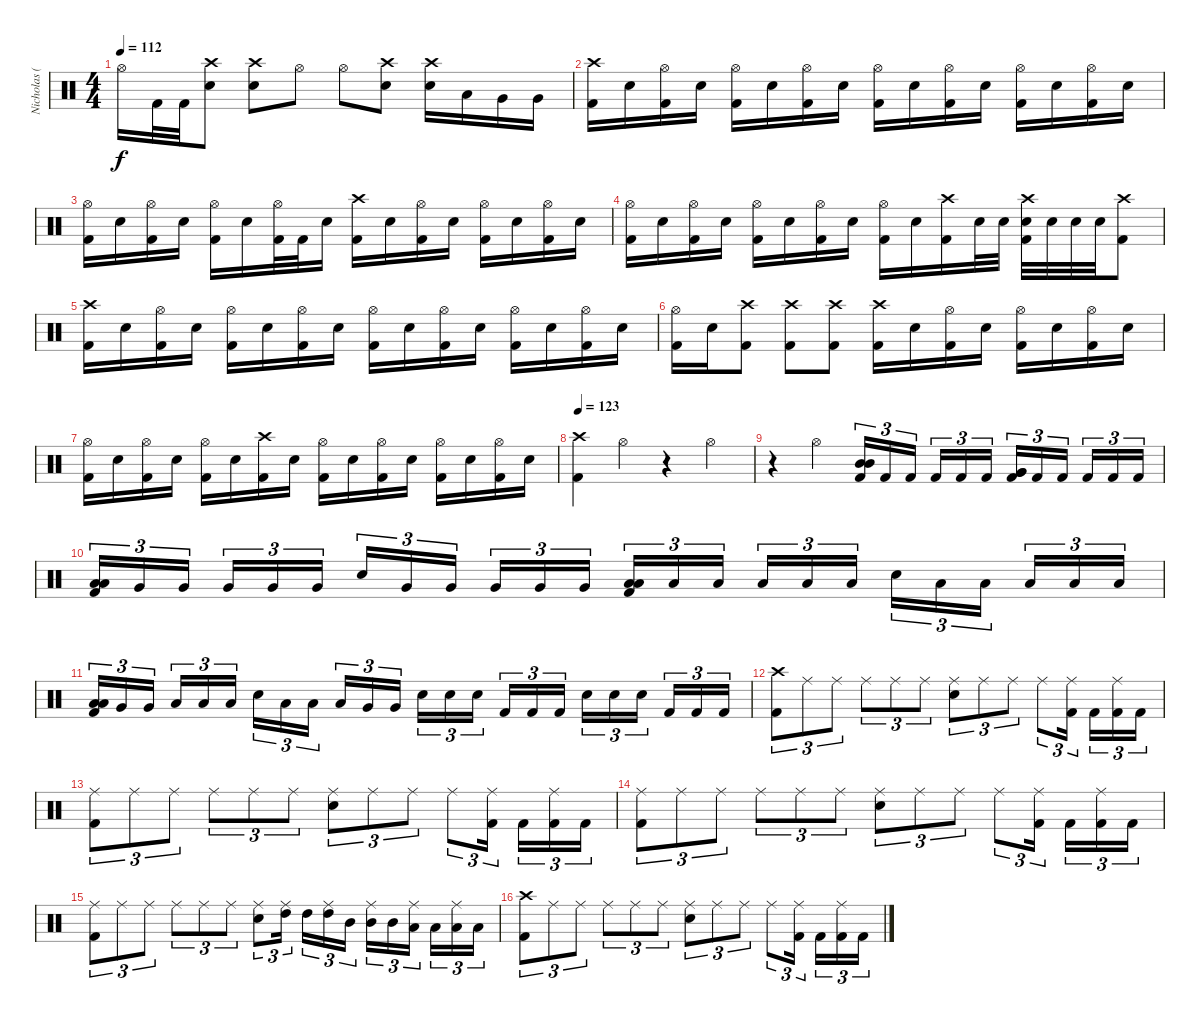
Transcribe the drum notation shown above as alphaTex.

\track ("Nicholas (Drums)" "Nicholas (") {instrument percussion}
\staff {score}
\articulation defaults
\ts (4 4)
\tempo 112
\clef neutral
\ks c "Hi-Hat (open)".16{dy f} "Kick (hit) 2".32 "Kick (hit) 2".32
("Crash high (hit)" "Electric Snare (hit)").8 ("Crash high (hit)" "Electric Snare (hit)").8 "Hi-Hat (open)".8 "Hi-Hat (open)".8 ("Crash high (hit)" "Electric Snare (hit)").8 ("Crash high (hit)" "Electric Snare (hit)").16 "Low Tom (hit)".16 "Very Low Tom (hit)".16 "Very Low Tom (hit)".16 |
("Crash high (hit)" "Kick (hit) 2").16 "Electric Snare (hit)".16 ("Hi-Hat (open)" "Kick (hit) 2").16 "Electric Snare (hit)".16 ("Hi-Hat (open)" "Kick (hit) 2").16 "Electric Snare (hit)".16 ("Hi-Hat (open)" "Kick (hit) 2").16 "Electric Snare (hit)".16 ("Hi-Hat (open)" "Kick (hit) 2").16 "Electric Snare (hit)".16 ("Hi-Hat (open)" "Kick (hit) 2").16 "Electric Snare (hit)".16 ("Hi-Hat (open)" "Kick (hit) 2").16 "Electric Snare (hit)".16 ("Hi-Hat (open)" "Kick (hit) 2").16 "Electric Snare (hit)".16 |
("Hi-Hat (open)" "Kick (hit) 2").16 "Electric Snare (hit)".16 ("Hi-Hat (open)" "Kick (hit) 2").16 "Electric Snare (hit)".16 ("Hi-Hat (open)" "Kick (hit) 2").16 "Electric Snare (hit)".16 ("Hi-Hat (open)" "Kick (hit) 2").32 "Kick (hit) 2".32 "Electric Snare (hit)".16 ("Crash high (hit)" "Kick (hit) 2").16 "Electric Snare (hit)".16 ("Hi-Hat (open)" "Kick (hit) 2").16 "Electric Snare (hit)".16 ("Hi-Hat (open)" "Kick (hit) 2").16 "Electric Snare (hit)".16 ("Hi-Hat (open)" "Kick (hit) 2").16 "Electric Snare (hit)".16 |
("Hi-Hat (open)" "Kick (hit) 2").16 "Electric Snare (hit)".16 ("Hi-Hat (open)" "Kick (hit) 2").16 "Electric Snare (hit)".16 ("Hi-Hat (open)" "Kick (hit) 2").16 "Electric Snare (hit)".16 ("Hi-Hat (open)" "Kick (hit) 2").16 "Electric Snare (hit)".16 ("Hi-Hat (open)" "Kick (hit) 2").16 "Electric Snare (hit)".16 ("Crash high (hit)" "Kick (hit) 2").16 "Electric Snare (hit)".32 "Electric Snare (hit)".32 ("Crash high (hit)" "Electric Snare (hit)" "Kick (hit) 2").32 "Electric Snare (hit)".32 "Electric Snare (hit)".32 "Electric Snare (hit)".32 ("Crash high (hit)" "Kick (hit) 2").8 |
("Crash high (hit)" "Kick (hit) 2").16 "Electric Snare (hit)".16 ("Hi-Hat (open)" "Kick (hit) 2").16 "Electric Snare (hit)".16 ("Hi-Hat (open)" "Kick (hit) 2").16 "Electric Snare (hit)".16 ("Hi-Hat (open)" "Kick (hit) 2").16 "Electric Snare (hit)".16 ("Hi-Hat (open)" "Kick (hit) 2").16 "Electric Snare (hit)".16 ("Hi-Hat (open)" "Kick (hit) 2").16 "Electric Snare (hit)".16 ("Hi-Hat (open)" "Kick (hit) 2").16 "Electric Snare (hit)".16 ("Hi-Hat (open)" "Kick (hit) 2").16 "Electric Snare (hit)".16 |
("Hi-Hat (open)" "Kick (hit) 2").16 "Electric Snare (hit)".16 ("Crash high (hit)" "Kick (hit) 2").8 ("Crash high (hit)" "Kick (hit) 2").8 ("Crash high (hit)" "Kick (hit) 2").8 ("Crash high (hit)" "Kick (hit) 2").16 "Electric Snare (hit)".16 ("Hi-Hat (open)" "Kick (hit) 2").16 "Electric Snare (hit)".16 ("Hi-Hat (open)" "Kick (hit) 2").16 "Electric Snare (hit)".16 ("Hi-Hat (open)" "Kick (hit) 2").16 "Electric Snare (hit)".16 |
("Hi-Hat (open)" "Kick (hit) 2").16 "Electric Snare (hit)".16 ("Hi-Hat (open)" "Kick (hit) 2").16 "Electric Snare (hit)".16 ("Hi-Hat (open)" "Kick (hit) 2").16 "Electric Snare (hit)".16 ("Crash high (hit)" "Kick (hit) 2").16 "Electric Snare (hit)".16 ("Hi-Hat (open)" "Kick (hit) 2").16 "Electric Snare (hit)".16 ("Hi-Hat (open)" "Kick (hit) 2").16 "Electric Snare (hit)".16 ("Hi-Hat (open)" "Kick (hit) 2").16 "Electric Snare (hit)".16 ("Hi-Hat (open)" "Kick (hit) 2").16 "Electric Snare (hit)".16 |
\tempo 123
("Crash high (hit)" "Kick (hit) 2").4 "Hi-Hat (open)".4 r.4 "Hi-Hat (open)".4 |
r.4 "Hi-Hat (open)".4 ("Kick (hit) 2" "Mid Tom (hit)" "Mid Tom (hit)").16{tu (3 2)} "Kick (hit) 2".16{tu (3 2)} "Kick (hit) 2".16{tu (3 2)} "Kick (hit) 2".16{tu (3 2)} "Kick (hit) 2".16{tu (3 2)} "Kick (hit) 2".16{tu (3 2)} ("Kick (hit) 2" "Very Low Tom (hit)" "Very Low Tom (hit)").16{tu (3 2)} "Kick (hit) 2".16{tu (3 2)} "Kick (hit) 2".16{tu (3 2)} "Kick (hit) 2".16{tu (3 2)} "Kick (hit) 2".16{tu (3 2)} "Kick (hit) 2".16{tu (3 2)} |
("Kick (hit) 2" "Low Tom (hit)" "Low Tom (hit)").16{tu (3 2)} "Very Low Tom (hit)".16{tu (3 2)} "Very Low Tom (hit)".16{tu (3 2)} "Very Low Tom (hit)".16{tu (3 2)} "Very Low Tom (hit)".16{tu (3 2)} "Very Low Tom (hit)".16{tu (3 2)} "Electric Snare (hit)".16{tu (3 2)} "Very Low Tom (hit)".16{tu (3 2)} "Very Low Tom (hit)".16{tu (3 2)} "Very Low Tom (hit)".16{tu (3 2)} "Very Low Tom (hit)".16{tu (3 2)} "Very Low Tom (hit)".16{tu (3 2)} ("Kick (hit) 2" "Low Tom (hit)" "Low Tom (hit)").16{tu (3 2)} "Low Floor Tom (hit)".16{tu (3 2)} "Low Floor Tom (hit)".16{tu (3 2)} "Low Floor Tom (hit)".16{tu (3 2)} "Low Floor Tom (hit)".16{tu (3 2)} "Low Floor Tom (hit)".16{tu (3 2)} "Electric Snare (hit)".16{tu (3 2)} "Low Floor Tom (hit)".16{tu (3 2)} "Low Floor Tom (hit)".16{tu (3 2)} "Low Floor Tom (hit)".16{tu (3 2)} "Low Floor Tom (hit)".16{tu (3 2)} "Low Floor Tom (hit)".16{tu (3 2)} |
("Kick (hit) 2" "Low Tom (hit)" "Low Tom (hit)").16{tu (3 2)} "Very Low Tom (hit)".16{tu (3 2)} "Very Low Tom (hit)".16{tu (3 2)} "Low Floor Tom (hit)".16{tu (3 2)} "Low Floor Tom (hit)".16{tu (3 2)} "Low Floor Tom (hit)".16{tu (3 2)} "Electric Snare (hit)".16{tu (3 2)} "Low Floor Tom (hit)".16{tu (3 2)} "Low Floor Tom (hit)".16{tu (3 2)} "Low Floor Tom (hit)".16{tu (3 2)} "Very Low Tom (hit)".16{tu (3 2)} "Very Low Tom (hit)".16{tu (3 2)} "Electric Snare (hit)".16{tu (3 2)} "Electric Snare (hit)".16{tu (3 2)} "Electric Snare (hit)".16{tu (3 2)} "Kick (hit) 2".16{tu (3 2)} "Kick (hit) 2".16{tu (3 2)} "Kick (hit) 2".16{tu (3 2)} "Electric Snare (hit)".16{tu (3 2)} "Electric Snare (hit)".16{tu (3 2)} "Electric Snare (hit)".16{tu (3 2)} "Kick (hit) 2".16{tu (3 2)} "Kick (hit) 2".16{tu (3 2)} "Kick (hit) 2".16{tu (3 2)} |
("Crash high (hit)" "Kick (hit) 2").8{tu (3 2)} "Ride (middle)".8{tu (3 2)} "Ride (middle)".8{tu (3 2)} "Ride (middle)".8{tu (3 2)} "Ride (middle)".8{tu (3 2)} "Ride (middle)".8{tu (3 2)} ("Ride (middle)" "Electric Snare (hit)").8{tu (3 2)} "Ride (middle)".8{tu (3 2)} "Ride (middle)".8{tu (3 2)} "Ride (middle)".8{tu (3 2)} ("Ride (middle)" "Kick (hit) 2").16{tu (3 2)} "Kick (hit) 2".16{tu (3 2)} ("Ride (middle)" "Kick (hit) 2").16{tu (3 2)} "Kick (hit) 2".16{tu (3 2)} |
("Ride (middle)" "Kick (hit) 2").8{tu (3 2)} "Ride (middle)".8{tu (3 2)} "Ride (middle)".8{tu (3 2)} "Ride (middle)".8{tu (3 2)} "Ride (middle)".8{tu (3 2)} "Ride (middle)".8{tu (3 2)} ("Ride (middle)" "Electric Snare (hit)").8{tu (3 2)} "Ride (middle)".8{tu (3 2)} "Ride (middle)".8{tu (3 2)} "Ride (middle)".8{tu (3 2)} ("Ride (middle)" "Kick (hit) 2").16{tu (3 2)} "Kick (hit) 2".16{tu (3 2)} ("Ride (middle)" "Kick (hit) 2").16{tu (3 2)} "Kick (hit) 2".16{tu (3 2)} |
("Ride (middle)" "Kick (hit) 2").8{tu (3 2)} "Ride (middle)".8{tu (3 2)} "Ride (middle)".8{tu (3 2)} "Ride (middle)".8{tu (3 2)} "Ride (middle)".8{tu (3 2)} "Ride (middle)".8{tu (3 2)} ("Ride (middle)" "Electric Snare (hit)").8{tu (3 2)} "Ride (middle)".8{tu (3 2)} "Ride (middle)".8{tu (3 2)} "Ride (middle)".8{tu (3 2)} ("Ride (middle)" "Kick (hit) 2").16{tu (3 2)} "Kick (hit) 2".16{tu (3 2)} ("Ride (middle)" "Kick (hit) 2").16{tu (3 2)} "Kick (hit) 2".16{tu (3 2)} |
("Ride (middle)" "Kick (hit) 2").8{tu (3 2)} "Ride (middle)".8{tu (3 2)} "Ride (middle)".8{tu (3 2)} "Ride (middle)".8{tu (3 2)} "Ride (middle)".8{tu (3 2)} "Ride (middle)".8{tu (3 2)} ("Ride (middle)" "Electric Snare (hit)").8{tu (3 2)} ("Ride (middle)" "High Tom (hit)").16{tu (3 2)} "High Tom (hit)".16{tu (3 2)} ("Ride (middle)" "High Tom (hit)").16{tu (3 2)} "Mid Tom (hit)".16{tu (3 2)} ("Ride (middle)" "Mid Tom (hit)").16{tu (3 2)} "Mid Tom (hit)".16{tu (3 2)} ("Ride (middle)" "Low Tom (hit)").16{tu (3 2)} "Low Tom (hit)".16{tu (3 2)} ("Ride (middle)" "Low Tom (hit)").16{tu (3 2)} "Low Tom (hit)".16{tu (3 2)} |
("Crash high (hit)" "Kick (hit) 2").8{tu (3 2)} "Ride (middle)".8{tu (3 2)} "Ride (middle)".8{tu (3 2)} "Ride (middle)".8{tu (3 2)} "Ride (middle)".8{tu (3 2)} "Ride (middle)".8{tu (3 2)} ("Ride (middle)" "Electric Snare (hit)").8{tu (3 2)} "Ride (middle)".8{tu (3 2)} "Ride (middle)".8{tu (3 2)} "Ride (middle)".8{tu (3 2)} ("Ride (middle)" "Kick (hit) 2").16{tu (3 2)} "Kick (hit) 2".16{tu (3 2)} ("Ride (middle)" "Kick (hit) 2").16{tu (3 2)} "Kick (hit) 2".16{tu (3 2)}
